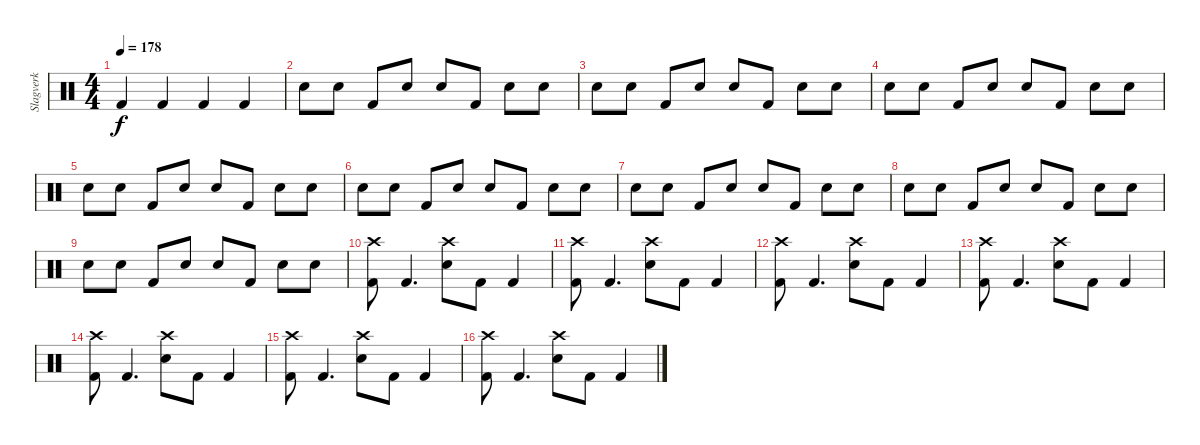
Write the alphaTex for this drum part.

\track ("Slagverk" "Slagverk") {instrument percussion}
\staff {score}
\articulation defaults
\ts (4 4)
\tempo 178
\clef neutral
\ks c "Kick (hit) 2".4{dy f} "Kick (hit) 2".4 "Kick (hit) 2".4 "Kick (hit) 2".4
|
"Electric Snare (hit)".8 "Electric Snare (hit)".8 "Kick (hit) 2".8 "Electric Snare (hit)".8 "Electric Snare (hit)".8 "Kick (hit) 2".8 "Electric Snare (hit)".8 "Electric Snare (hit)".8 |
"Electric Snare (hit)".8 "Electric Snare (hit)".8 "Kick (hit) 2".8 "Electric Snare (hit)".8 "Electric Snare (hit)".8 "Kick (hit) 2".8 "Electric Snare (hit)".8 "Electric Snare (hit)".8 |
"Electric Snare (hit)".8 "Electric Snare (hit)".8 "Kick (hit) 2".8 "Electric Snare (hit)".8 "Electric Snare (hit)".8 "Kick (hit) 2".8 "Electric Snare (hit)".8 "Electric Snare (hit)".8 |
"Electric Snare (hit)".8 "Electric Snare (hit)".8 "Kick (hit) 2".8 "Electric Snare (hit)".8 "Electric Snare (hit)".8 "Kick (hit) 2".8 "Electric Snare (hit)".8 "Electric Snare (hit)".8 |
"Electric Snare (hit)".8 "Electric Snare (hit)".8 "Kick (hit) 2".8 "Electric Snare (hit)".8 "Electric Snare (hit)".8 "Kick (hit) 2".8 "Electric Snare (hit)".8 "Electric Snare (hit)".8 |
"Electric Snare (hit)".8 "Electric Snare (hit)".8 "Kick (hit) 2".8 "Electric Snare (hit)".8 "Electric Snare (hit)".8 "Kick (hit) 2".8 "Electric Snare (hit)".8 "Electric Snare (hit)".8 |
"Electric Snare (hit)".8 "Electric Snare (hit)".8 "Kick (hit) 2".8 "Electric Snare (hit)".8 "Electric Snare (hit)".8 "Kick (hit) 2".8 "Electric Snare (hit)".8 "Electric Snare (hit)".8 |
"Electric Snare (hit)".8 "Electric Snare (hit)".8 "Kick (hit) 2".8 "Electric Snare (hit)".8 "Electric Snare (hit)".8 "Kick (hit) 2".8 "Electric Snare (hit)".8 "Electric Snare (hit)".8 |
("Crash high (hit)" "Kick (hit) 2").8 "Kick (hit) 2".4{d} ("Crash high (hit)" "Electric Snare (hit)").8 "Kick (hit) 2".8 "Kick (hit) 2".4 |
("Crash high (hit)" "Kick (hit) 2").8 "Kick (hit) 2".4{d} ("Crash high (hit)" "Electric Snare (hit)").8 "Kick (hit) 2".8 "Kick (hit) 2".4 |
("Crash high (hit)" "Kick (hit) 2").8 "Kick (hit) 2".4{d} ("Crash high (hit)" "Electric Snare (hit)").8 "Kick (hit) 2".8 "Kick (hit) 2".4 |
("Crash high (hit)" "Kick (hit) 2").8 "Kick (hit) 2".4{d} ("Crash high (hit)" "Electric Snare (hit)").8 "Kick (hit) 2".8 "Kick (hit) 2".4 |
("Crash high (hit)" "Kick (hit) 2").8 "Kick (hit) 2".4{d} ("Crash high (hit)" "Electric Snare (hit)").8 "Kick (hit) 2".8 "Kick (hit) 2".4 |
("Crash high (hit)" "Kick (hit) 2").8 "Kick (hit) 2".4{d} ("Crash high (hit)" "Electric Snare (hit)").8 "Kick (hit) 2".8 "Kick (hit) 2".4 |
("Crash high (hit)" "Kick (hit) 2").8 "Kick (hit) 2".4{d} ("Crash high (hit)" "Electric Snare (hit)").8 "Kick (hit) 2".8 "Kick (hit) 2".4
